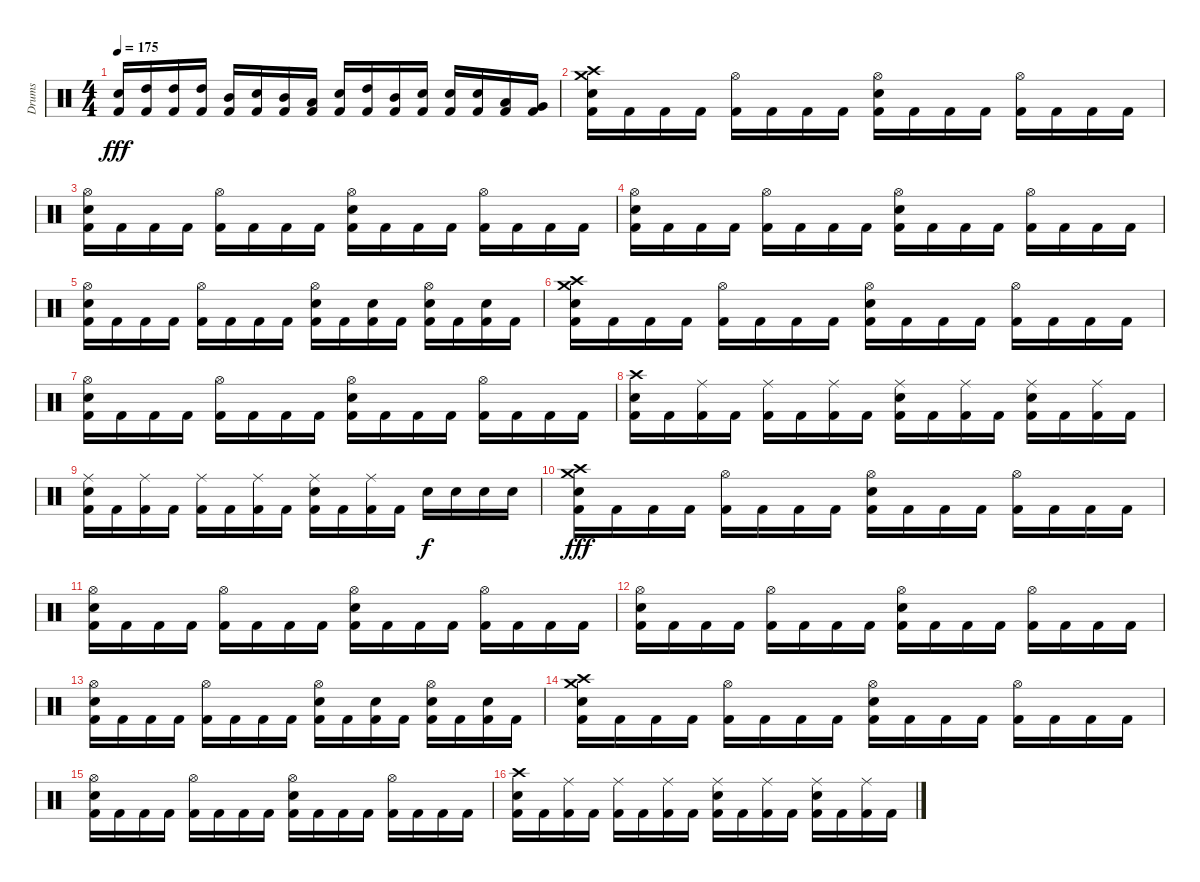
\track ("Drums" "Drums") {instrument percussion}
\staff {score}
\articulation defaults
\ts (4 4)
\tempo 175
\clef neutral
\ks c
("Electric Snare (hit)" "Kick (hit) 2").16{dy fff} ("High Tom (hit)" "Kick (hit) 2").16 ("High Tom (hit)" "Kick (hit) 2").16 ("High Tom (hit)" "Kick (hit) 2").16 ("Mid Tom (hit)" "Kick (hit) 2").16 ("Electric Snare (hit)" "Kick (hit) 2").16 ("Mid Tom (hit)" "Kick (hit) 2").16 ("Low Tom (hit)" "Kick (hit) 2").16 ("Electric Snare (hit)" "Kick (hit) 2").16 ("High Tom (hit)" "Kick (hit) 2").16 ("Mid Tom (hit)" "Kick (hit) 2").16 ("Electric Snare (hit)" "Kick (hit) 2").16 ("Electric Snare (hit)" "Kick (hit) 2").16 ("Electric Snare (hit)" "Kick (hit) 2").16 ("Low Tom (hit)" "Kick (hit) 2").16 ("Very Low Tom (hit)" "Kick (hit) 2").16 |
("Crash medium (hit)" "Crash high (hit)" "Electric Snare (hit)" "Kick (hit) 2").16 "Kick (hit) 2".16 "Kick (hit) 2".16 "Kick (hit) 2".16 ("Hi-Hat (open)" "Kick (hit) 2").16 "Kick (hit) 2".16 "Kick (hit) 2".16 "Kick (hit) 2".16 ("Hi-Hat (open)" "Electric Snare (hit)" "Kick (hit) 2").16 "Kick (hit) 2".16 "Kick (hit) 2".16 "Kick (hit) 2".16 ("Hi-Hat (open)" "Kick (hit) 2").16 "Kick (hit) 2".16 "Kick (hit) 2".16 "Kick (hit) 2".16 |
("Hi-Hat (open)" "Electric Snare (hit)" "Kick (hit) 2").16 "Kick (hit) 2".16 "Kick (hit) 2".16 "Kick (hit) 2".16 ("Hi-Hat (open)" "Kick (hit) 2").16 "Kick (hit) 2".16 "Kick (hit) 2".16 "Kick (hit) 2".16 ("Hi-Hat (open)" "Electric Snare (hit)" "Kick (hit) 2").16 "Kick (hit) 2".16 "Kick (hit) 2".16 "Kick (hit) 2".16 ("Hi-Hat (open)" "Kick (hit) 2").16 "Kick (hit) 2".16 "Kick (hit) 2".16 "Kick (hit) 2".16 |
("Hi-Hat (open)" "Electric Snare (hit)" "Kick (hit) 2").16 "Kick (hit) 2".16 "Kick (hit) 2".16 "Kick (hit) 2".16 ("Hi-Hat (open)" "Kick (hit) 2").16 "Kick (hit) 2".16 "Kick (hit) 2".16 "Kick (hit) 2".16 ("Hi-Hat (open)" "Electric Snare (hit)" "Kick (hit) 2").16 "Kick (hit) 2".16 "Kick (hit) 2".16 "Kick (hit) 2".16 ("Hi-Hat (open)" "Kick (hit) 2").16 "Kick (hit) 2".16 "Kick (hit) 2".16 "Kick (hit) 2".16 |
("Hi-Hat (open)" "Electric Snare (hit)" "Kick (hit) 2").16 "Kick (hit) 2".16 "Kick (hit) 2".16 "Kick (hit) 2".16 ("Hi-Hat (open)" "Kick (hit) 2").16 "Kick (hit) 2".16 "Kick (hit) 2".16 "Kick (hit) 2".16 ("Hi-Hat (open)" "Electric Snare (hit)" "Kick (hit) 2").16 "Kick (hit) 2".16 ("Electric Snare (hit)" "Kick (hit) 2").16 "Kick (hit) 2".16 ("Hi-Hat (open)" "Electric Snare (hit)" "Kick (hit) 2").16 "Kick (hit) 2".16 ("Electric Snare (hit)" "Kick (hit) 2").16 "Kick (hit) 2".16 |
("Crash medium (hit)" "Crash high (hit)" "Electric Snare (hit)" "Kick (hit) 2").16 "Kick (hit) 2".16 "Kick (hit) 2".16 "Kick (hit) 2".16 ("Hi-Hat (open)" "Kick (hit) 2").16 "Kick (hit) 2".16 "Kick (hit) 2".16 "Kick (hit) 2".16 ("Hi-Hat (open)" "Electric Snare (hit)" "Kick (hit) 2").16 "Kick (hit) 2".16 "Kick (hit) 2".16 "Kick (hit) 2".16 ("Hi-Hat (open)" "Kick (hit) 2").16 "Kick (hit) 2".16 "Kick (hit) 2".16 "Kick (hit) 2".16 |
("Hi-Hat (open)" "Electric Snare (hit)" "Kick (hit) 2").16 "Kick (hit) 2".16 "Kick (hit) 2".16 "Kick (hit) 2".16 ("Hi-Hat (open)" "Kick (hit) 2").16 "Kick (hit) 2".16 "Kick (hit) 2".16 "Kick (hit) 2".16 ("Hi-Hat (open)" "Electric Snare (hit)" "Kick (hit) 2").16 "Kick (hit) 2".16 "Kick (hit) 2".16 "Kick (hit) 2".16 ("Hi-Hat (open)" "Kick (hit) 2").16 "Kick (hit) 2".16 "Kick (hit) 2".16 "Kick (hit) 2".16 |
("Crash high (hit)" "Electric Snare (hit)" "Kick (hit) 2").16 "Kick (hit) 2".16 ("Ride (middle)" "Kick (hit) 2").16 "Kick (hit) 2".16 ("Ride (middle)" "Kick (hit) 2").16 "Kick (hit) 2".16 ("Ride (middle)" "Kick (hit) 2").16 "Kick (hit) 2".16 ("Ride (middle)" "Electric Snare (hit)" "Kick (hit) 2").16 "Kick (hit) 2".16 ("Ride (middle)" "Kick (hit) 2").16 "Kick (hit) 2".16 ("Ride (middle)" "Electric Snare (hit)" "Kick (hit) 2").16 "Kick (hit) 2".16 ("Ride (middle)" "Kick (hit) 2").16 "Kick (hit) 2".16 |
("Ride (middle)" "Electric Snare (hit)" "Kick (hit) 2").16 "Kick (hit) 2".16 ("Ride (middle)" "Kick (hit) 2").16 "Kick (hit) 2".16 ("Ride (middle)" "Kick (hit) 2").16 "Kick (hit) 2".16 ("Ride (middle)" "Kick (hit) 2").16 "Kick (hit) 2".16 ("Ride (middle)" "Electric Snare (hit)" "Kick (hit) 2").16 "Kick (hit) 2".16 ("Ride (middle)" "Kick (hit) 2").16 "Kick (hit) 2".16 "Electric Snare (hit)".16{dy f} "Electric Snare (hit)".16 "Electric Snare (hit)".16 "Electric Snare (hit)".16 |
("Crash medium (hit)" "Crash high (hit)" "Electric Snare (hit)" "Kick (hit) 2").16{dy fff} "Kick (hit) 2".16 "Kick (hit) 2".16 "Kick (hit) 2".16 ("Hi-Hat (open)" "Kick (hit) 2").16 "Kick (hit) 2".16 "Kick (hit) 2".16 "Kick (hit) 2".16 ("Hi-Hat (open)" "Electric Snare (hit)" "Kick (hit) 2").16 "Kick (hit) 2".16 "Kick (hit) 2".16 "Kick (hit) 2".16 ("Hi-Hat (open)" "Kick (hit) 2").16 "Kick (hit) 2".16 "Kick (hit) 2".16 "Kick (hit) 2".16 |
("Hi-Hat (open)" "Electric Snare (hit)" "Kick (hit) 2").16 "Kick (hit) 2".16 "Kick (hit) 2".16 "Kick (hit) 2".16 ("Hi-Hat (open)" "Kick (hit) 2").16 "Kick (hit) 2".16 "Kick (hit) 2".16 "Kick (hit) 2".16 ("Hi-Hat (open)" "Electric Snare (hit)" "Kick (hit) 2").16 "Kick (hit) 2".16 "Kick (hit) 2".16 "Kick (hit) 2".16 ("Hi-Hat (open)" "Kick (hit) 2").16 "Kick (hit) 2".16 "Kick (hit) 2".16 "Kick (hit) 2".16 |
("Hi-Hat (open)" "Electric Snare (hit)" "Kick (hit) 2").16 "Kick (hit) 2".16 "Kick (hit) 2".16 "Kick (hit) 2".16 ("Hi-Hat (open)" "Kick (hit) 2").16 "Kick (hit) 2".16 "Kick (hit) 2".16 "Kick (hit) 2".16 ("Hi-Hat (open)" "Electric Snare (hit)" "Kick (hit) 2").16 "Kick (hit) 2".16 "Kick (hit) 2".16 "Kick (hit) 2".16 ("Hi-Hat (open)" "Kick (hit) 2").16 "Kick (hit) 2".16 "Kick (hit) 2".16 "Kick (hit) 2".16 |
("Hi-Hat (open)" "Electric Snare (hit)" "Kick (hit) 2").16 "Kick (hit) 2".16 "Kick (hit) 2".16 "Kick (hit) 2".16 ("Hi-Hat (open)" "Kick (hit) 2").16 "Kick (hit) 2".16 "Kick (hit) 2".16 "Kick (hit) 2".16 ("Hi-Hat (open)" "Electric Snare (hit)" "Kick (hit) 2").16 "Kick (hit) 2".16 ("Electric Snare (hit)" "Kick (hit) 2").16 "Kick (hit) 2".16 ("Hi-Hat (open)" "Electric Snare (hit)" "Kick (hit) 2").16 "Kick (hit) 2".16 ("Electric Snare (hit)" "Kick (hit) 2").16 "Kick (hit) 2".16 |
("Crash medium (hit)" "Crash high (hit)" "Electric Snare (hit)" "Kick (hit) 2").16 "Kick (hit) 2".16 "Kick (hit) 2".16 "Kick (hit) 2".16 ("Hi-Hat (open)" "Kick (hit) 2").16 "Kick (hit) 2".16 "Kick (hit) 2".16 "Kick (hit) 2".16 ("Hi-Hat (open)" "Electric Snare (hit)" "Kick (hit) 2").16 "Kick (hit) 2".16 "Kick (hit) 2".16 "Kick (hit) 2".16 ("Hi-Hat (open)" "Kick (hit) 2").16 "Kick (hit) 2".16 "Kick (hit) 2".16 "Kick (hit) 2".16 |
("Hi-Hat (open)" "Electric Snare (hit)" "Kick (hit) 2").16 "Kick (hit) 2".16 "Kick (hit) 2".16 "Kick (hit) 2".16 ("Hi-Hat (open)" "Kick (hit) 2").16 "Kick (hit) 2".16 "Kick (hit) 2".16 "Kick (hit) 2".16 ("Hi-Hat (open)" "Electric Snare (hit)" "Kick (hit) 2").16 "Kick (hit) 2".16 "Kick (hit) 2".16 "Kick (hit) 2".16 ("Hi-Hat (open)" "Kick (hit) 2").16 "Kick (hit) 2".16 "Kick (hit) 2".16 "Kick (hit) 2".16 |
("Crash high (hit)" "Electric Snare (hit)" "Kick (hit) 2").16 "Kick (hit) 2".16 ("Ride (middle)" "Kick (hit) 2").16 "Kick (hit) 2".16 ("Ride (middle)" "Kick (hit) 2").16 "Kick (hit) 2".16 ("Ride (middle)" "Kick (hit) 2").16 "Kick (hit) 2".16 ("Ride (middle)" "Electric Snare (hit)" "Kick (hit) 2").16 "Kick (hit) 2".16 ("Ride (middle)" "Kick (hit) 2").16 "Kick (hit) 2".16 ("Ride (middle)" "Electric Snare (hit)" "Kick (hit) 2").16 "Kick (hit) 2".16 ("Ride (middle)" "Kick (hit) 2").16 "Kick (hit) 2".16
